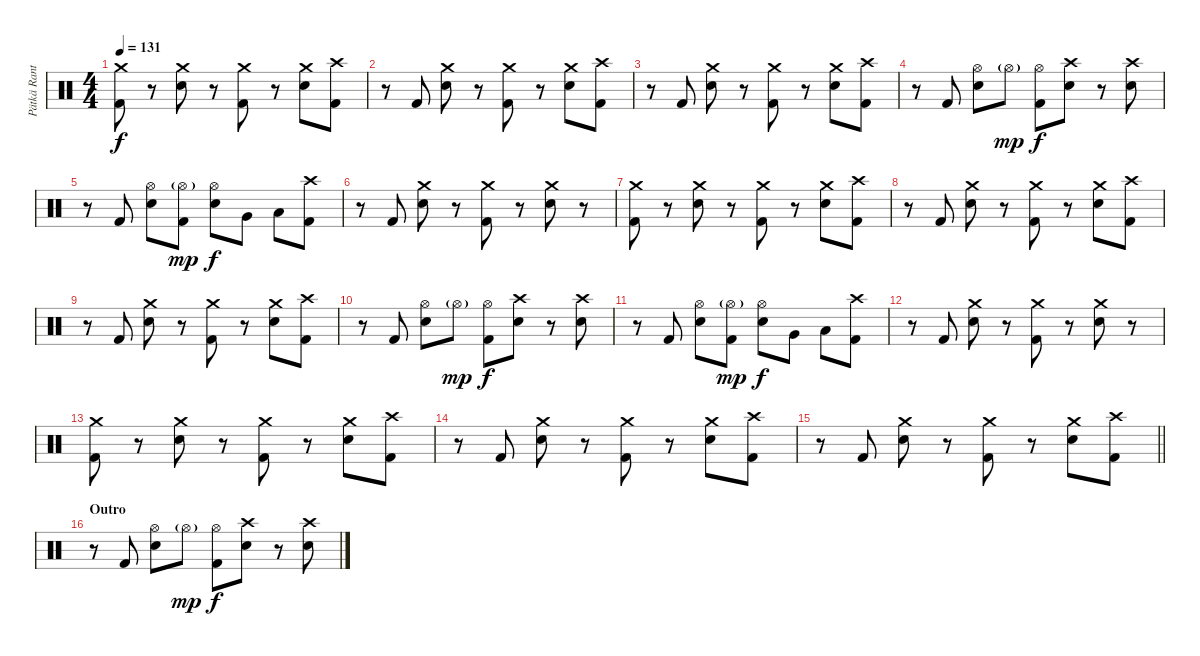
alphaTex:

\track ("Pätkä Rantala (Drums)" "Pätkä Rant") {instrument percussion}
\staff {score}
\articulation defaults
\ts (4 4)
\tempo 131
\clef neutral
\ks c
("Crash medium (hit)" "Kick (hit) 2").8{dy f} r.8 ("Crash medium (hit)" "Snare (hit) 2").8 r.8 ("Crash medium (hit)" "Kick (hit) 2").8 r.8 ("Crash medium (hit)" "Snare (hit) 2").8 ("Crash high (hit)" "Kick (hit) 2").8 |
r.8 "Kick (hit) 2".8 ("Crash medium (hit)" "Snare (hit) 2").8 r.8 ("Crash medium (hit)" "Kick (hit) 2").8 r.8 ("Crash medium (hit)" "Snare (hit) 2").8 ("Crash high (hit)" "Kick (hit) 2").8 |
r.8 "Kick (hit) 2".8 ("Crash medium (hit)" "Snare (hit) 2").8 r.8 ("Crash medium (hit)" "Kick (hit) 2").8 r.8 ("Crash medium (hit)" "Snare (hit) 2").8 ("Crash high (hit)" "Kick (hit) 2").8 |
r.8 "Kick (hit) 2".8 ("Hi-Hat (open)" "Snare (hit) 2").8 "Hi-Hat (open)"{g}.8{dy mp} ("Hi-Hat (open)" "Kick (hit) 2").8{dy f} ("Crash high (hit)" "Snare (hit) 2").8 r.8 ("Crash high (hit)" "Snare (hit) 2").8 |
r.8 "Kick (hit) 2".8 ("Hi-Hat (open)" "Snare (hit) 2").8 ("Hi-Hat (open)"{g} "Kick (hit) 2").8{dy mp} ("Hi-Hat (open)" "Snare (hit) 2").8{dy f} "Very Low Tom (hit)".8 "Low Floor Tom (hit)".8 ("Crash high (hit)" "Kick (hit) 2").8 |
r.8 "Kick (hit) 2".8 ("Crash medium (hit)" "Snare (hit) 2").8 r.8 ("Crash medium (hit)" "Kick (hit) 2").8 r.8 ("Crash medium (hit)" "Snare (hit) 2").8 r.8 |
("Crash medium (hit)" "Kick (hit) 2").8 r.8 ("Crash medium (hit)" "Snare (hit) 2").8 r.8 ("Crash medium (hit)" "Kick (hit) 2").8 r.8 ("Crash medium (hit)" "Snare (hit) 2").8 ("Crash high (hit)" "Kick (hit) 2").8 |
r.8 "Kick (hit) 2".8 ("Crash medium (hit)" "Snare (hit) 2").8 r.8 ("Crash medium (hit)" "Kick (hit) 2").8 r.8 ("Crash medium (hit)" "Snare (hit) 2").8 ("Crash high (hit)" "Kick (hit) 2").8 |
r.8 "Kick (hit) 2".8 ("Crash medium (hit)" "Snare (hit) 2").8 r.8 ("Crash medium (hit)" "Kick (hit) 2").8 r.8 ("Crash medium (hit)" "Snare (hit) 2").8 ("Crash high (hit)" "Kick (hit) 2").8 |
r.8 "Kick (hit) 2".8 ("Hi-Hat (open)" "Snare (hit) 2").8 "Hi-Hat (open)"{g}.8{dy mp} ("Hi-Hat (open)" "Kick (hit) 2").8{dy f} ("Crash high (hit)" "Snare (hit) 2").8 r.8 ("Crash high (hit)" "Snare (hit) 2").8 |
r.8 "Kick (hit) 2".8 ("Hi-Hat (open)" "Snare (hit) 2").8 ("Hi-Hat (open)"{g} "Kick (hit) 2").8{dy mp} ("Hi-Hat (open)" "Snare (hit) 2").8{dy f} "Very Low Tom (hit)".8 "Low Floor Tom (hit)".8 ("Crash high (hit)" "Kick (hit) 2").8 |
r.8 "Kick (hit) 2".8 ("Crash medium (hit)" "Snare (hit) 2").8 r.8 ("Crash medium (hit)" "Kick (hit) 2").8 r.8 ("Crash medium (hit)" "Snare (hit) 2").8 r.8 |
("Crash medium (hit)" "Kick (hit) 2").8 r.8 ("Crash medium (hit)" "Snare (hit) 2").8 r.8 ("Crash medium (hit)" "Kick (hit) 2").8 r.8 ("Crash medium (hit)" "Snare (hit) 2").8 ("Crash high (hit)" "Kick (hit) 2").8 |
r.8 "Kick (hit) 2".8 ("Crash medium (hit)" "Snare (hit) 2").8 r.8 ("Crash medium (hit)" "Kick (hit) 2").8 r.8 ("Crash medium (hit)" "Snare (hit) 2").8 ("Crash high (hit)" "Kick (hit) 2").8 |
\barLineRight lightlight
r.8 "Kick (hit) 2".8 ("Crash medium (hit)" "Snare (hit) 2").8 r.8 ("Crash medium (hit)" "Kick (hit) 2").8 r.8 ("Crash medium (hit)" "Snare (hit) 2").8 ("Crash high (hit)" "Kick (hit) 2").8 |
\section ("" "Outro")
r.8 "Kick (hit) 2".8 ("Hi-Hat (open)" "Snare (hit) 2").8 "Hi-Hat (open)"{g}.8{dy mp} ("Hi-Hat (open)" "Kick (hit) 2").8{dy f} ("Crash high (hit)" "Snare (hit) 2").8 r.8 ("Crash high (hit)" "Snare (hit) 2").8
